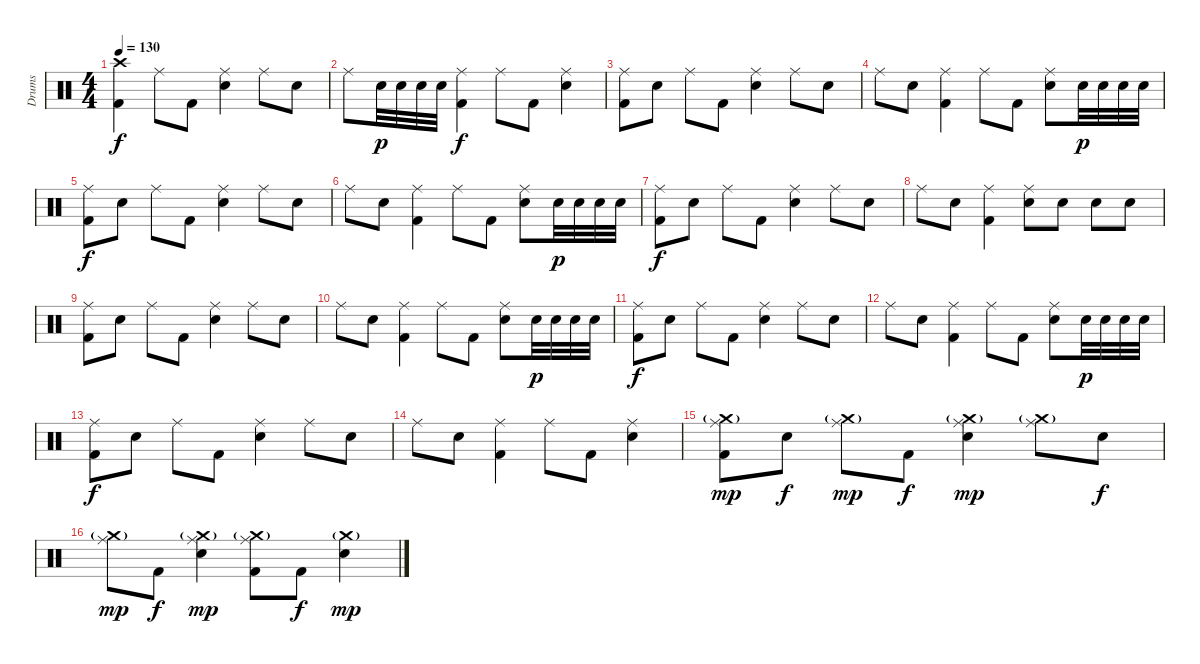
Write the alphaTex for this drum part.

\track ("Drums" "Drums") {instrument percussion}
\staff {score}
\articulation defaults
\ts (4 4)
\tempo 130
\clef neutral
\ks c
("Crash high (hit)" "Kick (hit) 2").4{dy f} "Ride (middle)".8 "Kick (hit) 2".8 ("Ride (middle)" "Electric Snare (hit)").4 "Ride (middle)".8 "Electric Snare (hit)".8 |
"Ride (middle)".8 "Electric Snare (hit)".32{dy p} "Electric Snare (hit)".32 "Electric Snare (hit)".32 "Electric Snare (hit)".32 ("Ride (middle)" "Kick (hit) 2").4{dy f} "Ride (middle)".8 "Kick (hit) 2".8 ("Ride (middle)" "Electric Snare (hit)").4 |
("Ride (middle)" "Kick (hit) 2").8 "Electric Snare (hit)".8 "Ride (middle)".8 "Kick (hit) 2".8 ("Ride (middle)" "Electric Snare (hit)").4 "Ride (middle)".8 "Electric Snare (hit)".8 |
"Ride (middle)".8 "Electric Snare (hit)".8 ("Ride (middle)" "Kick (hit) 2").4 "Ride (middle)".8 "Kick (hit) 2".8 ("Ride (middle)" "Electric Snare (hit)").8 "Electric Snare (hit)".32{dy p} "Electric Snare (hit)".32 "Electric Snare (hit)".32 "Electric Snare (hit)".32 |
("Ride (middle)" "Kick (hit) 2").8{dy f} "Electric Snare (hit)".8 "Ride (middle)".8 "Kick (hit) 2".8 ("Ride (middle)" "Electric Snare (hit)").4 "Ride (middle)".8 "Electric Snare (hit)".8 |
"Ride (middle)".8 "Electric Snare (hit)".8 ("Ride (middle)" "Kick (hit) 2").4 "Ride (middle)".8 "Kick (hit) 2".8 ("Ride (middle)" "Electric Snare (hit)").8 "Electric Snare (hit)".32{dy p} "Electric Snare (hit)".32 "Electric Snare (hit)".32 "Electric Snare (hit)".32 |
("Ride (middle)" "Kick (hit) 2").8{dy f} "Electric Snare (hit)".8 "Ride (middle)".8 "Kick (hit) 2".8 ("Ride (middle)" "Electric Snare (hit)").4 "Ride (middle)".8 "Electric Snare (hit)".8 |
"Ride (middle)".8 "Electric Snare (hit)".8 ("Ride (middle)" "Kick (hit) 2").4 ("Ride (middle)" "Electric Snare (hit)").8 "Electric Snare (hit)".8 "Electric Snare (hit)".8 "Electric Snare (hit)".8 |
("Ride (middle)" "Kick (hit) 2").8 "Electric Snare (hit)".8 "Ride (middle)".8 "Kick (hit) 2".8 ("Ride (middle)" "Electric Snare (hit)").4 "Ride (middle)".8 "Electric Snare (hit)".8 |
"Ride (middle)".8 "Electric Snare (hit)".8 ("Ride (middle)" "Kick (hit) 2").4 "Ride (middle)".8 "Kick (hit) 2".8 ("Ride (middle)" "Electric Snare (hit)").8 "Electric Snare (hit)".32{dy p} "Electric Snare (hit)".32 "Electric Snare (hit)".32 "Electric Snare (hit)".32 |
("Ride (middle)" "Kick (hit) 2").8{dy f} "Electric Snare (hit)".8 "Ride (middle)".8 "Kick (hit) 2".8 ("Ride (middle)" "Electric Snare (hit)").4 "Ride (middle)".8 "Electric Snare (hit)".8 |
"Ride (middle)".8 "Electric Snare (hit)".8 ("Ride (middle)" "Kick (hit) 2").4 "Ride (middle)".8 "Kick (hit) 2".8 ("Ride (middle)" "Electric Snare (hit)").8 "Electric Snare (hit)".32{dy p} "Electric Snare (hit)".32 "Electric Snare (hit)".32 "Electric Snare (hit)".32 |
("Ride (middle)" "Kick (hit) 2").8{dy f} "Electric Snare (hit)".8 "Ride (middle)".8 "Kick (hit) 2".8 ("Ride (middle)" "Electric Snare (hit)").4 "Ride (middle)".8 "Electric Snare (hit)".8 |
"Ride (middle)".8 "Electric Snare (hit)".8 ("Ride (middle)" "Kick (hit) 2").4 "Ride (middle)".8 "Kick (hit) 2".8 ("Ride (middle)" "Electric Snare (hit)").4 |
("Crash medium (hit)"{g} "Ride (middle)" "Kick (hit) 2").8{dy mp} "Electric Snare (hit)".8{dy f} ("Crash medium (hit)"{g} "Ride (middle)").8{dy mp} "Kick (hit) 2".8{dy f} ("Crash medium (hit)"{g} "Ride (middle)" "Electric Snare (hit)").4{dy mp} ("Crash medium (hit)"{g} "Ride (middle)").8 "Electric Snare (hit)".8{dy f} |
("Crash medium (hit)"{g} "Ride (middle)").8{dy mp} "Kick (hit) 2".8{dy f} ("Crash medium (hit)"{g} "Ride (middle)" "Electric Snare (hit)").4{dy mp} ("Crash medium (hit)"{g} "Ride (middle)" "Kick (hit) 2").8 "Kick (hit) 2".8{dy f} ("Crash medium (hit)"{g} "Electric Snare (hit)").4{dy mp}
